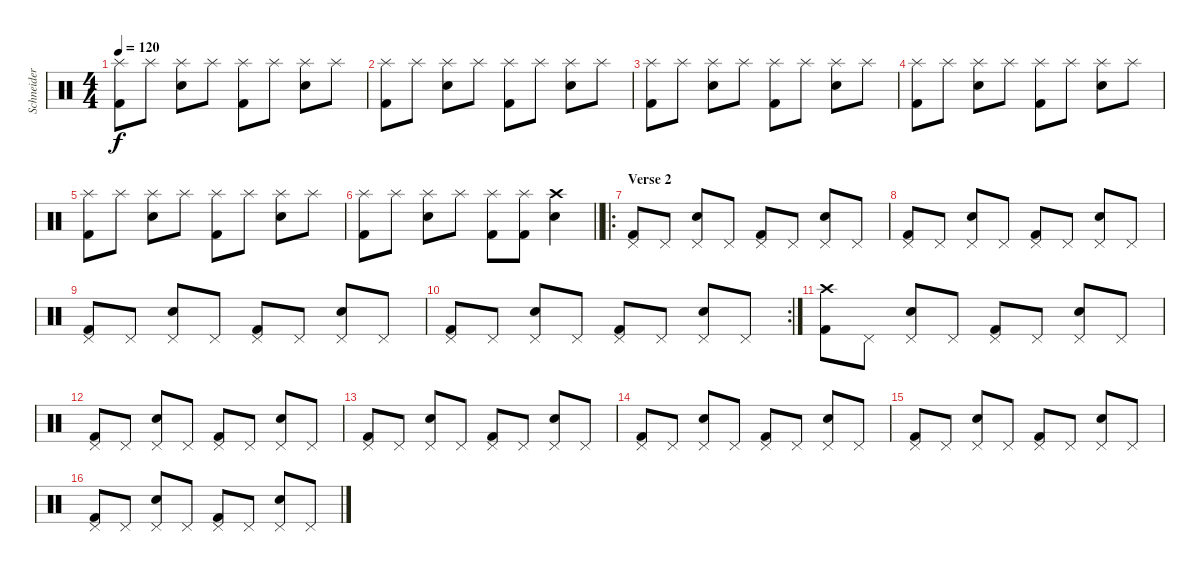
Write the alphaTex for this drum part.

\track ("Schneider" "Schneider") {instrument percussion}
\staff {score}
\articulation defaults
\ts (4 4)
\tempo 120
\clef neutral
\ks c
("Splash (hit)" "Kick (hit) 2").8{dy f} "Splash (hit)".8 ("Splash (hit)" "Electric Snare (hit)").8 "Splash (hit)".8 ("Splash (hit)" "Kick (hit) 2").8 "Splash (hit)".8 ("Splash (hit)" "Electric Snare (hit)").8 "Splash (hit)".8 |
("Splash (hit)" "Kick (hit) 2").8 "Splash (hit)".8 ("Splash (hit)" "Electric Snare (hit)").8 "Splash (hit)".8 ("Splash (hit)" "Kick (hit) 2").8 "Splash (hit)".8 ("Splash (hit)" "Electric Snare (hit)").8 "Splash (hit)".8 |
("Splash (hit)" "Kick (hit) 2").8 "Splash (hit)".8 ("Splash (hit)" "Electric Snare (hit)").8 "Splash (hit)".8 ("Splash (hit)" "Kick (hit) 2").8 "Splash (hit)".8 ("Splash (hit)" "Electric Snare (hit)").8 "Splash (hit)".8 |
("Splash (hit)" "Kick (hit) 2").8 "Splash (hit)".8 ("Splash (hit)" "Electric Snare (hit)").8 "Splash (hit)".8 ("Splash (hit)" "Kick (hit) 2").8 "Splash (hit)".8 ("Splash (hit)" "Electric Snare (hit)").8 "Splash (hit)".8 |
("Splash (hit)" "Kick (hit) 2").8 "Splash (hit)".8 ("Splash (hit)" "Electric Snare (hit)").8 "Splash (hit)".8 ("Splash (hit)" "Kick (hit) 2").8 "Splash (hit)".8 ("Splash (hit)" "Electric Snare (hit)").8 "Splash (hit)".8 |
\barLineRight lightlight
("Splash (hit)" "Kick (hit) 2").8 "Splash (hit)".8 ("Splash (hit)" "Electric Snare (hit)").8 "Splash (hit)".8 ("Splash (hit)" "Kick (hit) 2").8 ("Splash (hit)" "Kick (hit) 2").8 ("Crash high (hit)" "Electric Snare (hit)").4 |
\ro
\section ("" "Verse 2")
("Pedal Hi-Hat (hit)" "Kick (hit) 2").8 "Pedal Hi-Hat (hit)".8 ("Pedal Hi-Hat (hit)" "Electric Snare (hit)").8 "Pedal Hi-Hat (hit)".8 ("Pedal Hi-Hat (hit)" "Kick (hit) 2").8 "Pedal Hi-Hat (hit)".8 ("Pedal Hi-Hat (hit)" "Electric Snare (hit)").8 "Pedal Hi-Hat (hit)".8 |
("Pedal Hi-Hat (hit)" "Kick (hit) 2").8 "Pedal Hi-Hat (hit)".8 ("Pedal Hi-Hat (hit)" "Electric Snare (hit)").8 "Pedal Hi-Hat (hit)".8 ("Pedal Hi-Hat (hit)" "Kick (hit) 2").8 "Pedal Hi-Hat (hit)".8 ("Pedal Hi-Hat (hit)" "Electric Snare (hit)").8 "Pedal Hi-Hat (hit)".8 |
("Pedal Hi-Hat (hit)" "Kick (hit) 2").8 "Pedal Hi-Hat (hit)".8 ("Pedal Hi-Hat (hit)" "Electric Snare (hit)").8 "Pedal Hi-Hat (hit)".8 ("Pedal Hi-Hat (hit)" "Kick (hit) 2").8 "Pedal Hi-Hat (hit)".8 ("Pedal Hi-Hat (hit)" "Electric Snare (hit)").8 "Pedal Hi-Hat (hit)".8 |
\rc 2
("Pedal Hi-Hat (hit)" "Kick (hit) 2").8 "Pedal Hi-Hat (hit)".8 ("Pedal Hi-Hat (hit)" "Electric Snare (hit)").8 "Pedal Hi-Hat (hit)".8 ("Pedal Hi-Hat (hit)" "Kick (hit) 2").8 "Pedal Hi-Hat (hit)".8 ("Pedal Hi-Hat (hit)" "Electric Snare (hit)").8 "Pedal Hi-Hat (hit)".8 |
("Crash high (hit)" "Kick (hit) 2").8 "Pedal Hi-Hat (hit)".8 ("Pedal Hi-Hat (hit)" "Electric Snare (hit)").8 "Pedal Hi-Hat (hit)".8 ("Pedal Hi-Hat (hit)" "Kick (hit) 2").8 "Pedal Hi-Hat (hit)".8 ("Pedal Hi-Hat (hit)" "Electric Snare (hit)").8 "Pedal Hi-Hat (hit)".8 |
("Pedal Hi-Hat (hit)" "Kick (hit) 2").8 "Pedal Hi-Hat (hit)".8 ("Pedal Hi-Hat (hit)" "Electric Snare (hit)").8 "Pedal Hi-Hat (hit)".8 ("Pedal Hi-Hat (hit)" "Kick (hit) 2").8 "Pedal Hi-Hat (hit)".8 ("Pedal Hi-Hat (hit)" "Electric Snare (hit)").8 "Pedal Hi-Hat (hit)".8 |
("Pedal Hi-Hat (hit)" "Kick (hit) 2").8 "Pedal Hi-Hat (hit)".8 ("Pedal Hi-Hat (hit)" "Electric Snare (hit)").8 "Pedal Hi-Hat (hit)".8 ("Pedal Hi-Hat (hit)" "Kick (hit) 2").8 "Pedal Hi-Hat (hit)".8 ("Pedal Hi-Hat (hit)" "Electric Snare (hit)").8 "Pedal Hi-Hat (hit)".8 |
("Pedal Hi-Hat (hit)" "Kick (hit) 2").8 "Pedal Hi-Hat (hit)".8 ("Pedal Hi-Hat (hit)" "Electric Snare (hit)").8 "Pedal Hi-Hat (hit)".8 ("Pedal Hi-Hat (hit)" "Kick (hit) 2").8 "Pedal Hi-Hat (hit)".8 ("Pedal Hi-Hat (hit)" "Electric Snare (hit)").8 "Pedal Hi-Hat (hit)".8 |
("Pedal Hi-Hat (hit)" "Kick (hit) 2").8 "Pedal Hi-Hat (hit)".8 ("Pedal Hi-Hat (hit)" "Electric Snare (hit)").8 "Pedal Hi-Hat (hit)".8 ("Pedal Hi-Hat (hit)" "Kick (hit) 2").8 "Pedal Hi-Hat (hit)".8 ("Pedal Hi-Hat (hit)" "Electric Snare (hit)").8 "Pedal Hi-Hat (hit)".8 |
("Pedal Hi-Hat (hit)" "Kick (hit) 2").8 "Pedal Hi-Hat (hit)".8 ("Pedal Hi-Hat (hit)" "Electric Snare (hit)").8 "Pedal Hi-Hat (hit)".8 ("Pedal Hi-Hat (hit)" "Kick (hit) 2").8 "Pedal Hi-Hat (hit)".8 ("Pedal Hi-Hat (hit)" "Electric Snare (hit)").8 "Pedal Hi-Hat (hit)".8
